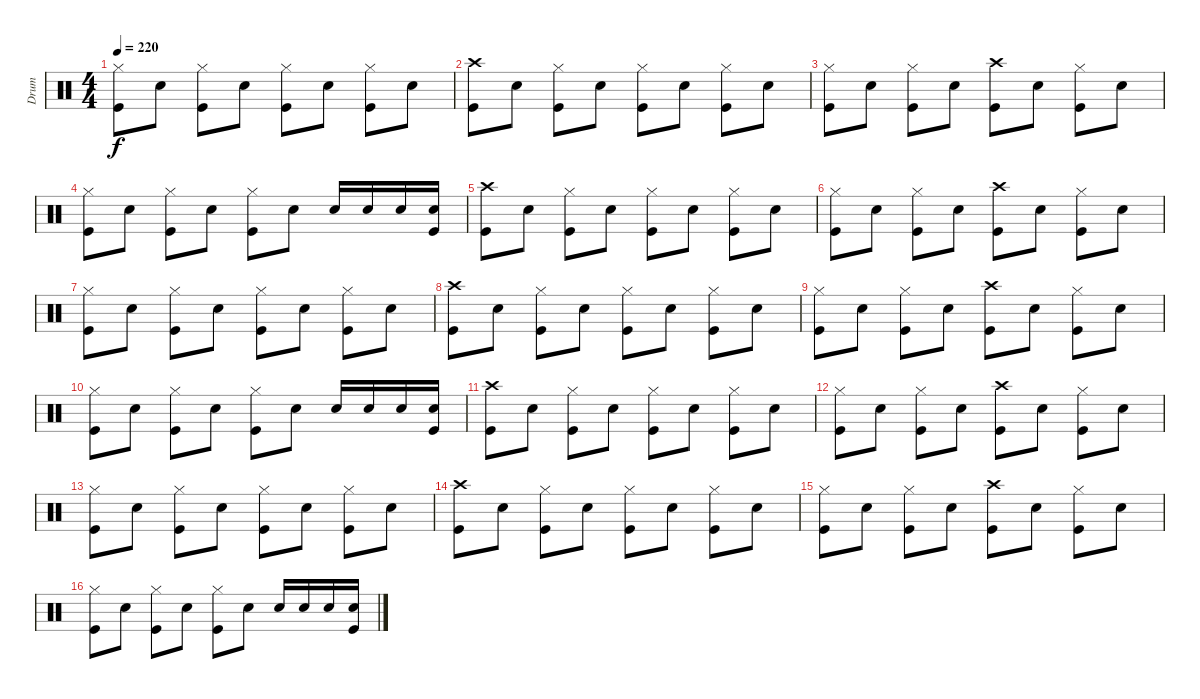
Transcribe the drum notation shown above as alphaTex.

\track ("Drum" "Drum") {instrument percussion}
\staff {score}
\articulation defaults
\ts (4 4)
\tempo 220
\clef neutral
\ks c
("Hi-Hat (closed)" "Kick (hit)").8{dy f} "Snare (hit) 2".8 ("Hi-Hat (closed)" "Kick (hit)").8 "Snare (hit) 2".8 ("Hi-Hat (closed)" "Kick (hit)").8 "Snare (hit) 2".8 ("Hi-Hat (closed)" "Kick (hit)").8 "Snare (hit) 2".8 |
("Crash high (hit)" "Kick (hit)").8 "Snare (hit) 2".8 ("Hi-Hat (closed)" "Kick (hit)").8 "Snare (hit) 2".8 ("Hi-Hat (closed)" "Kick (hit)").8 "Snare (hit) 2".8 ("Hi-Hat (closed)" "Kick (hit)").8 "Snare (hit) 2".8 |
("Hi-Hat (closed)" "Kick (hit)").8 "Snare (hit) 2".8 ("Hi-Hat (closed)" "Kick (hit)").8 "Snare (hit) 2".8 ("Crash high (hit)" "Kick (hit)").8 "Snare (hit) 2".8 ("Hi-Hat (closed)" "Kick (hit)").8 "Snare (hit) 2".8 |
("Hi-Hat (closed)" "Kick (hit)").8 "Snare (hit) 2".8 ("Hi-Hat (closed)" "Kick (hit)").8 "Snare (hit) 2".8 ("Hi-Hat (closed)" "Kick (hit)").8 "Snare (hit) 2".8 "Snare (hit) 2".16 "Snare (hit) 2".16 "Snare (hit) 2".16 ("Snare (hit) 2" "Kick (hit)").16 |
("Crash high (hit)" "Kick (hit)").8 "Snare (hit) 2".8 ("Hi-Hat (closed)" "Kick (hit)").8 "Snare (hit) 2".8 ("Hi-Hat (closed)" "Kick (hit)").8 "Snare (hit) 2".8 ("Hi-Hat (closed)" "Kick (hit)").8 "Snare (hit) 2".8 |
("Hi-Hat (closed)" "Kick (hit)").8 "Snare (hit) 2".8 ("Hi-Hat (closed)" "Kick (hit)").8 "Snare (hit) 2".8 ("Crash high (hit)" "Kick (hit)").8 "Snare (hit) 2".8 ("Hi-Hat (closed)" "Kick (hit)").8 "Snare (hit) 2".8 |
("Hi-Hat (closed)" "Kick (hit)").8 "Snare (hit) 2".8 ("Hi-Hat (closed)" "Kick (hit)").8 "Snare (hit) 2".8 ("Hi-Hat (closed)" "Kick (hit)").8 "Snare (hit) 2".8 ("Hi-Hat (closed)" "Kick (hit)").8 "Snare (hit) 2".8 |
("Crash high (hit)" "Kick (hit)").8 "Snare (hit) 2".8 ("Hi-Hat (closed)" "Kick (hit)").8 "Snare (hit) 2".8 ("Hi-Hat (closed)" "Kick (hit)").8 "Snare (hit) 2".8 ("Hi-Hat (closed)" "Kick (hit)").8 "Snare (hit) 2".8 |
("Hi-Hat (closed)" "Kick (hit)").8 "Snare (hit) 2".8 ("Hi-Hat (closed)" "Kick (hit)").8 "Snare (hit) 2".8 ("Crash high (hit)" "Kick (hit)").8 "Snare (hit) 2".8 ("Hi-Hat (closed)" "Kick (hit)").8 "Snare (hit) 2".8 |
("Hi-Hat (closed)" "Kick (hit)").8 "Snare (hit) 2".8 ("Hi-Hat (closed)" "Kick (hit)").8 "Snare (hit) 2".8 ("Hi-Hat (closed)" "Kick (hit)").8 "Snare (hit) 2".8 "Snare (hit) 2".16 "Snare (hit) 2".16 "Snare (hit) 2".16 ("Snare (hit) 2" "Kick (hit)").16 |
("Crash high (hit)" "Kick (hit)").8 "Snare (hit) 2".8 ("Hi-Hat (closed)" "Kick (hit)").8 "Snare (hit) 2".8 ("Hi-Hat (closed)" "Kick (hit)").8 "Snare (hit) 2".8 ("Hi-Hat (closed)" "Kick (hit)").8 "Snare (hit) 2".8 |
("Hi-Hat (closed)" "Kick (hit)").8 "Snare (hit) 2".8 ("Hi-Hat (closed)" "Kick (hit)").8 "Snare (hit) 2".8 ("Crash high (hit)" "Kick (hit)").8 "Snare (hit) 2".8 ("Hi-Hat (closed)" "Kick (hit)").8 "Snare (hit) 2".8 |
("Hi-Hat (closed)" "Kick (hit)").8 "Snare (hit) 2".8 ("Hi-Hat (closed)" "Kick (hit)").8 "Snare (hit) 2".8 ("Hi-Hat (closed)" "Kick (hit)").8 "Snare (hit) 2".8 ("Hi-Hat (closed)" "Kick (hit)").8 "Snare (hit) 2".8 |
("Crash high (hit)" "Kick (hit)").8 "Snare (hit) 2".8 ("Hi-Hat (closed)" "Kick (hit)").8 "Snare (hit) 2".8 ("Hi-Hat (closed)" "Kick (hit)").8 "Snare (hit) 2".8 ("Hi-Hat (closed)" "Kick (hit)").8 "Snare (hit) 2".8 |
("Hi-Hat (closed)" "Kick (hit)").8 "Snare (hit) 2".8 ("Hi-Hat (closed)" "Kick (hit)").8 "Snare (hit) 2".8 ("Crash high (hit)" "Kick (hit)").8 "Snare (hit) 2".8 ("Hi-Hat (closed)" "Kick (hit)").8 "Snare (hit) 2".8 |
("Hi-Hat (closed)" "Kick (hit)").8 "Snare (hit) 2".8 ("Hi-Hat (closed)" "Kick (hit)").8 "Snare (hit) 2".8 ("Hi-Hat (closed)" "Kick (hit)").8 "Snare (hit) 2".8 "Snare (hit) 2".16 "Snare (hit) 2".16 "Snare (hit) 2".16 ("Snare (hit) 2" "Kick (hit)").16
